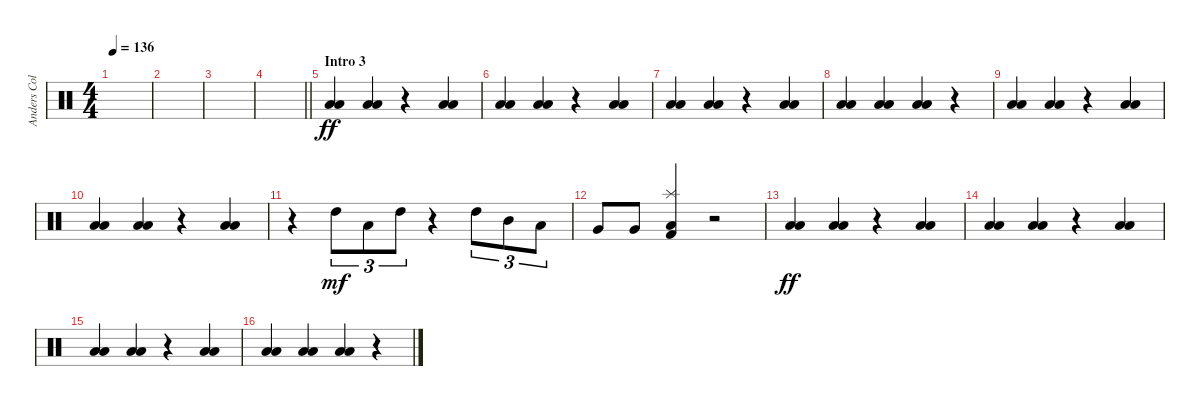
\track ("Anders Colsefini" "Anders Col") {instrument percussion}
\staff {score}
\articulation defaults
\ts (4 4)
\tempo 136
\clef neutral
\ks c
|
|
|
\barLineRight lightlight
|
\section ("" "Intro 3")
("Low Floor Tom (hit)" "Low Floor Tom (hit)").4{dy ff} ("Low Floor Tom (hit)" "Low Floor Tom (hit)").4 r.4 ("Low Floor Tom (hit)" "Low Floor Tom (hit)").4 |
("Low Floor Tom (hit)" "Low Floor Tom (hit)").4 ("Low Floor Tom (hit)" "Low Floor Tom (hit)").4 r.4 ("Low Floor Tom (hit)" "Low Floor Tom (hit)").4 |
("Low Floor Tom (hit)" "Low Floor Tom (hit)").4 ("Low Floor Tom (hit)" "Low Floor Tom (hit)").4 r.4 ("Low Floor Tom (hit)" "Low Floor Tom (hit)").4 |
("Low Floor Tom (hit)" "Low Floor Tom (hit)").4 ("Low Floor Tom (hit)" "Low Floor Tom (hit)").4 ("Low Floor Tom (hit)" "Low Floor Tom (hit)").4 r.4 |
("Low Floor Tom (hit)" "Low Floor Tom (hit)").4 ("Low Floor Tom (hit)" "Low Floor Tom (hit)").4 r.4 ("Low Floor Tom (hit)" "Low Floor Tom (hit)").4 |
("Low Floor Tom (hit)" "Low Floor Tom (hit)").4 ("Low Floor Tom (hit)" "Low Floor Tom (hit)").4 r.4 ("Low Floor Tom (hit)" "Low Floor Tom (hit)").4 |
r.4 "High Tom (hit)".8{tu (3 2) dy mf} "Low Tom (hit)".8{tu (3 2)} "High Tom (hit)".8{tu (3 2)} r.4 "High Tom (hit)".8{tu (3 2)} "Mid Tom (hit)".8{tu (3 2)} "Low Tom (hit)".8{tu (3 2)} |
"Very Low Tom (hit)".8 "Very Low Tom (hit)".8 ("Splash (hit)" "Low Floor Tom (hit)" "Kick (hit) 2").4 r.2 |
("Low Floor Tom (hit)" "Low Floor Tom (hit)").4{dy ff} ("Low Floor Tom (hit)" "Low Floor Tom (hit)").4 r.4 ("Low Floor Tom (hit)" "Low Floor Tom (hit)").4 |
("Low Floor Tom (hit)" "Low Floor Tom (hit)").4 ("Low Floor Tom (hit)" "Low Floor Tom (hit)").4 r.4 ("Low Floor Tom (hit)" "Low Floor Tom (hit)").4 |
("Low Floor Tom (hit)" "Low Floor Tom (hit)").4 ("Low Floor Tom (hit)" "Low Floor Tom (hit)").4 r.4 ("Low Floor Tom (hit)" "Low Floor Tom (hit)").4 |
("Low Floor Tom (hit)" "Low Floor Tom (hit)").4 ("Low Floor Tom (hit)" "Low Floor Tom (hit)").4 ("Low Floor Tom (hit)" "Low Floor Tom (hit)").4 r.4
